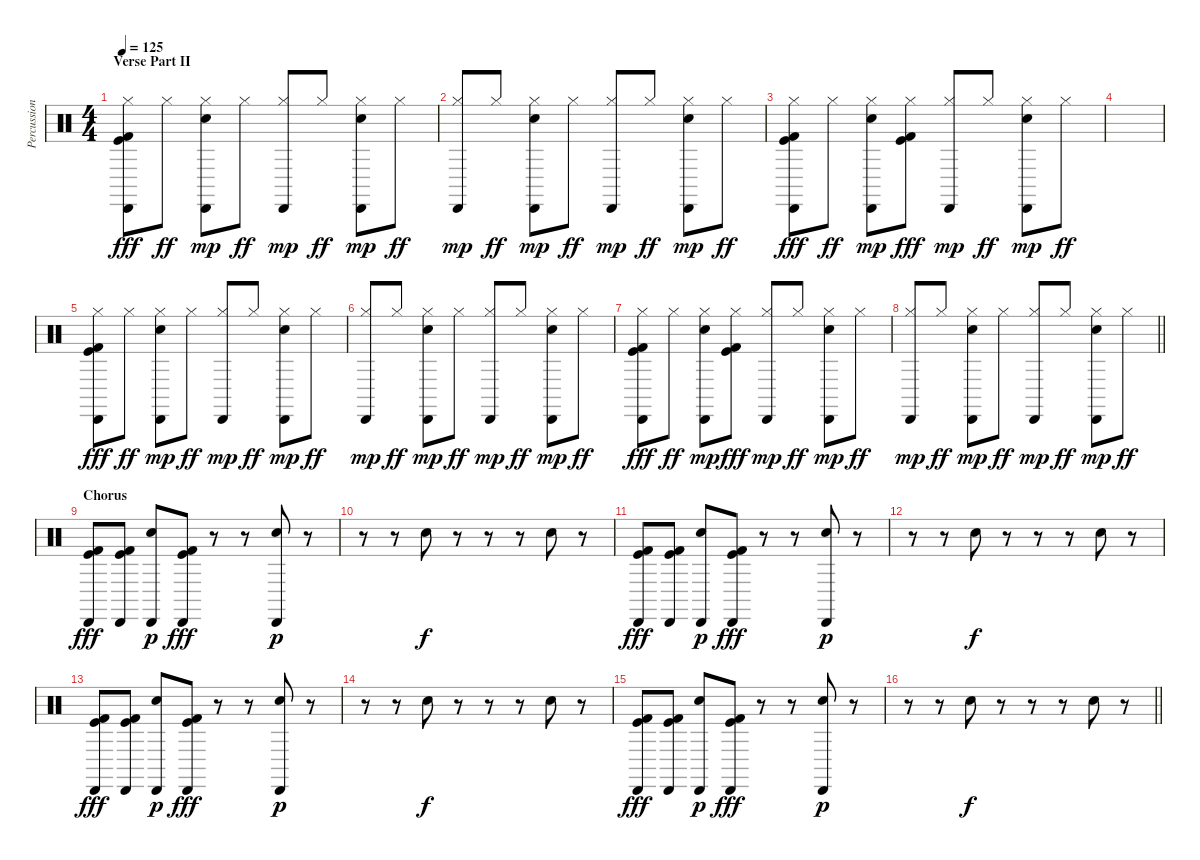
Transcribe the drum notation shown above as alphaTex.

\track ("Percussion" "Percussion") {instrument percussion}
\staff {score}
\articulation defaults
\ts (4 4)
\section ("" "Verse Part II")
\tempo 125
\clef neutral
\ks c
("Hi-Hat (closed)" "Cabasa (hit)" "Kick (hit)" "Kick (hit) 2").8{dy fff} "Hi-Hat (closed)".8{dy ff} ("Hi-Hat (closed)" "Cabasa (hit)" "Electric Snare (hit)").8{dy mp} "Hi-Hat (closed)".8{dy ff} ("Hi-Hat (closed)" "Cabasa (hit)").8{dy mp} "Hi-Hat (closed)".8{dy ff} ("Hi-Hat (closed)" "Cabasa (hit)" "Electric Snare (hit)").8{dy mp} "Hi-Hat (closed)".8{dy ff} |
("Hi-Hat (closed)" "Cabasa (hit)").8{dy mp} "Hi-Hat (closed)".8{dy ff} ("Hi-Hat (closed)" "Cabasa (hit)" "Electric Snare (hit)").8{dy mp} "Hi-Hat (closed)".8{dy ff} ("Hi-Hat (closed)" "Cabasa (hit)").8{dy mp} "Hi-Hat (closed)".8{dy ff} ("Hi-Hat (closed)" "Cabasa (hit)" "Electric Snare (hit)").8{dy mp} "Hi-Hat (closed)".8{dy ff} |
("Hi-Hat (closed)" "Cabasa (hit)" "Kick (hit)" "Kick (hit) 2").8{dy fff} "Hi-Hat (closed)".8{dy ff} ("Hi-Hat (closed)" "Cabasa (hit)" "Electric Snare (hit)").8{dy mp} ("Hi-Hat (closed)" "Kick (hit)" "Kick (hit) 2").8{dy fff} ("Hi-Hat (closed)" "Cabasa (hit)").8{dy mp} "Hi-Hat (closed)".8{dy ff} ("Hi-Hat (closed)" "Cabasa (hit)" "Electric Snare (hit)").8{dy mp} "Hi-Hat (closed)".8{dy ff} |
|
("Hi-Hat (closed)" "Cabasa (hit)" "Kick (hit)" "Kick (hit) 2").8{dy fff} "Hi-Hat (closed)".8{dy ff} ("Hi-Hat (closed)" "Cabasa (hit)" "Electric Snare (hit)").8{dy mp} "Hi-Hat (closed)".8{dy ff} ("Hi-Hat (closed)" "Cabasa (hit)").8{dy mp} "Hi-Hat (closed)".8{dy ff} ("Hi-Hat (closed)" "Cabasa (hit)" "Electric Snare (hit)").8{dy mp} "Hi-Hat (closed)".8{dy ff} |
("Hi-Hat (closed)" "Cabasa (hit)").8{dy mp} "Hi-Hat (closed)".8{dy ff} ("Hi-Hat (closed)" "Cabasa (hit)" "Electric Snare (hit)").8{dy mp} "Hi-Hat (closed)".8{dy ff} ("Hi-Hat (closed)" "Cabasa (hit)").8{dy mp} "Hi-Hat (closed)".8{dy ff} ("Hi-Hat (closed)" "Cabasa (hit)" "Electric Snare (hit)").8{dy mp} "Hi-Hat (closed)".8{dy ff} |
("Hi-Hat (closed)" "Cabasa (hit)" "Kick (hit)" "Kick (hit) 2").8{dy fff} "Hi-Hat (closed)".8{dy ff} ("Hi-Hat (closed)" "Cabasa (hit)" "Electric Snare (hit)").8{dy mp} ("Hi-Hat (closed)" "Kick (hit)" "Kick (hit) 2").8{dy fff} ("Hi-Hat (closed)" "Cabasa (hit)").8{dy mp} "Hi-Hat (closed)".8{dy ff} ("Hi-Hat (closed)" "Cabasa (hit)" "Electric Snare (hit)").8{dy mp} "Hi-Hat (closed)".8{dy ff} |
\barLineRight lightlight
("Hi-Hat (closed)" "Cabasa (hit)").8{dy mp} "Hi-Hat (closed)".8{dy ff} ("Hi-Hat (closed)" "Cabasa (hit)" "Electric Snare (hit)").8{dy mp} "Hi-Hat (closed)".8{dy ff} ("Hi-Hat (closed)" "Cabasa (hit)").8{dy mp} "Hi-Hat (closed)".8{dy ff} ("Hi-Hat (closed)" "Cabasa (hit)" "Electric Snare (hit)").8{dy mp} "Hi-Hat (closed)".8{dy ff} |
\section ("" "Chorus")
("Cabasa (hit)" "Kick (hit)" "Kick (hit) 2").8{dy fff} ("Cabasa (hit)" "Kick (hit)" "Kick (hit) 2").8 ("Cabasa (hit)" "Electric Snare (hit)").8{dy p} ("Cabasa (hit)" "Kick (hit)" "Kick (hit) 2").8{dy fff} r.8 r.8 ("Cabasa (hit)" "Electric Snare (hit)").8{dy p} r.8 |
r.8 r.8 "Electric Snare (hit)".8{dy f} r.8 r.8 r.8 "Electric Snare (hit)".8 r.8 |
("Cabasa (hit)" "Kick (hit)" "Kick (hit) 2").8{dy fff} ("Cabasa (hit)" "Kick (hit)" "Kick (hit) 2").8 ("Cabasa (hit)" "Electric Snare (hit)").8{dy p} ("Cabasa (hit)" "Kick (hit)" "Kick (hit) 2").8{dy fff} r.8 r.8 ("Cabasa (hit)" "Electric Snare (hit)").8{dy p} r.8 |
r.8 r.8 "Electric Snare (hit)".8{dy f} r.8 r.8 r.8 "Electric Snare (hit)".8 r.8 |
("Cabasa (hit)" "Kick (hit)" "Kick (hit) 2").8{dy fff} ("Cabasa (hit)" "Kick (hit)" "Kick (hit) 2").8 ("Cabasa (hit)" "Electric Snare (hit)").8{dy p} ("Cabasa (hit)" "Kick (hit)" "Kick (hit) 2").8{dy fff} r.8 r.8 ("Cabasa (hit)" "Electric Snare (hit)").8{dy p} r.8 |
r.8 r.8 "Electric Snare (hit)".8{dy f} r.8 r.8 r.8 "Electric Snare (hit)".8 r.8 |
("Cabasa (hit)" "Kick (hit)" "Kick (hit) 2").8{dy fff} ("Cabasa (hit)" "Kick (hit)" "Kick (hit) 2").8 ("Cabasa (hit)" "Electric Snare (hit)").8{dy p} ("Cabasa (hit)" "Kick (hit)" "Kick (hit) 2").8{dy fff} r.8 r.8 ("Cabasa (hit)" "Electric Snare (hit)").8{dy p} r.8 |
\barLineRight lightlight
r.8 r.8 "Electric Snare (hit)".8{dy f} r.8 r.8 r.8 "Electric Snare (hit)".8 r.8
